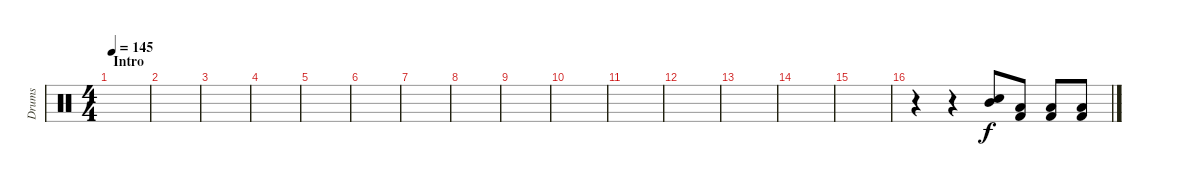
\track ("Drums" "Drums") {instrument percussion}
\staff {score}
\articulation defaults
\ts (4 4)
\section ("" "Intro")
\tempo 145
\clef neutral
\ks c
|
|
|
|
|
|
|
|
|
|
|
|
|
|
|
r.4 r.4 ("Snare (hit) 2" "Mid Tom (hit)").8 ("Low Tom (hit)" "Kick (hit) 2").8 ("Low Tom (hit)" "Kick (hit) 2").8 ("Low Tom (hit)" "Kick (hit) 2").8
